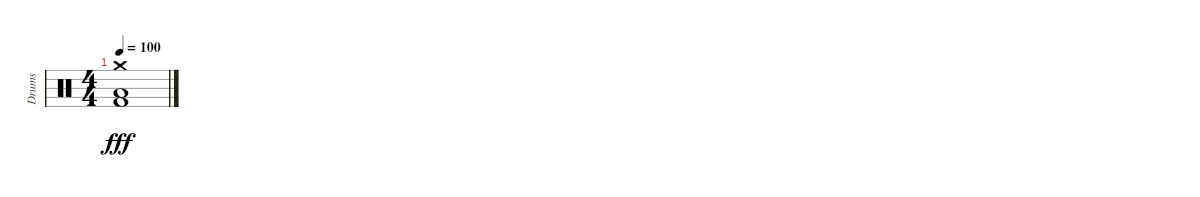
\track ("Drums" "Drums") {instrument percussion}
\staff {score}
\articulation defaults
\ts (4 4)
\tempo 100
\clef neutral
\ks c
("Kick (hit) 2" "Low Floor Tom (hit)" "Crash medium (hit)").1{dy fff}
